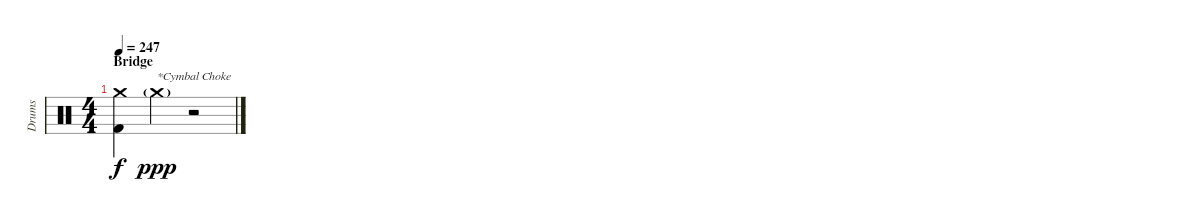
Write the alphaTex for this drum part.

\track ("Drums" "Drums") {instrument percussion}
\staff {score}
\articulation defaults
\ts (4 4)
\section ("" "Bridge")
\tempo 247
\clef neutral
\ks c
("Crash medium (hit)" "Kick (hit) 2").4{dy f} "Crash medium (hit)"{g}.4{txt "*Cymbal Choke" dy ppp} r.2
